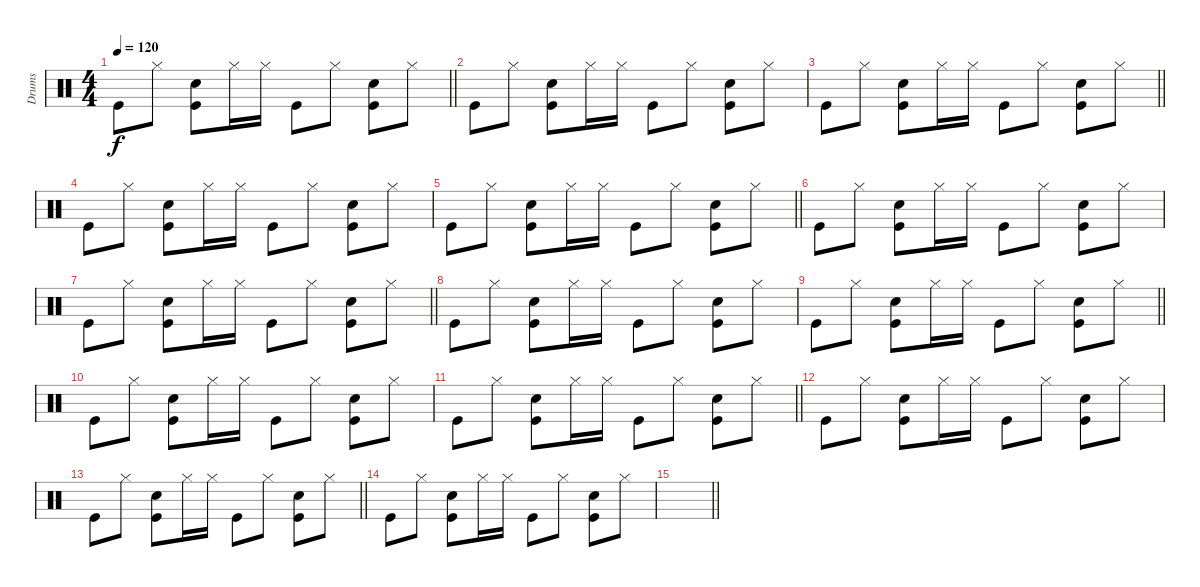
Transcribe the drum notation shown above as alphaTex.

\track ("Drums" "Drums") {instrument percussion}
\staff {score}
\articulation defaults
\ts (4 4)
\tempo 120
\clef neutral
\barLineRight lightlight
\ks c "Kick (hit)".8{dy f} "Hi-Hat (closed)".8
("Snare (hit) 2" "Kick (hit)").8 "Hi-Hat (closed)".16 "Hi-Hat (closed)".16 "Kick (hit)".8 "Hi-Hat (closed)".8 ("Snare (hit) 2" "Kick (hit)").8 "Hi-Hat (closed)".8 |
"Kick (hit)".8 "Hi-Hat (closed)".8 ("Snare (hit) 2" "Kick (hit)").8 "Hi-Hat (closed)".16 "Hi-Hat (closed)".16 "Kick (hit)".8 "Hi-Hat (closed)".8 ("Snare (hit) 2" "Kick (hit)").8 "Hi-Hat (closed)".8 |
\barLineRight lightlight "Kick (hit)".8 "Hi-Hat (closed)".8
("Snare (hit) 2" "Kick (hit)").8 "Hi-Hat (closed)".16 "Hi-Hat (closed)".16 "Kick (hit)".8 "Hi-Hat (closed)".8 ("Snare (hit) 2" "Kick (hit)").8 "Hi-Hat (closed)".8 |
"Kick (hit)".8 "Hi-Hat (closed)".8 ("Snare (hit) 2" "Kick (hit)").8 "Hi-Hat (closed)".16 "Hi-Hat (closed)".16 "Kick (hit)".8 "Hi-Hat (closed)".8 ("Snare (hit) 2" "Kick (hit)").8 "Hi-Hat (closed)".8 |
\barLineRight lightlight "Kick (hit)".8 "Hi-Hat (closed)".8
("Snare (hit) 2" "Kick (hit)").8 "Hi-Hat (closed)".16 "Hi-Hat (closed)".16 "Kick (hit)".8 "Hi-Hat (closed)".8 ("Snare (hit) 2" "Kick (hit)").8 "Hi-Hat (closed)".8 |
"Kick (hit)".8 "Hi-Hat (closed)".8 ("Snare (hit) 2" "Kick (hit)").8 "Hi-Hat (closed)".16 "Hi-Hat (closed)".16 "Kick (hit)".8 "Hi-Hat (closed)".8 ("Snare (hit) 2" "Kick (hit)").8 "Hi-Hat (closed)".8 |
\barLineRight lightlight "Kick (hit)".8 "Hi-Hat (closed)".8
("Snare (hit) 2" "Kick (hit)").8 "Hi-Hat (closed)".16 "Hi-Hat (closed)".16 "Kick (hit)".8 "Hi-Hat (closed)".8 ("Snare (hit) 2" "Kick (hit)").8 "Hi-Hat (closed)".8 |
"Kick (hit)".8 "Hi-Hat (closed)".8 ("Snare (hit) 2" "Kick (hit)").8 "Hi-Hat (closed)".16 "Hi-Hat (closed)".16 "Kick (hit)".8 "Hi-Hat (closed)".8 ("Snare (hit) 2" "Kick (hit)").8 "Hi-Hat (closed)".8 |
\barLineRight lightlight "Kick (hit)".8 "Hi-Hat (closed)".8
("Snare (hit) 2" "Kick (hit)").8 "Hi-Hat (closed)".16 "Hi-Hat (closed)".16 "Kick (hit)".8 "Hi-Hat (closed)".8 ("Snare (hit) 2" "Kick (hit)").8 "Hi-Hat (closed)".8 |
"Kick (hit)".8 "Hi-Hat (closed)".8 ("Snare (hit) 2" "Kick (hit)").8 "Hi-Hat (closed)".16 "Hi-Hat (closed)".16 "Kick (hit)".8 "Hi-Hat (closed)".8 ("Snare (hit) 2" "Kick (hit)").8 "Hi-Hat (closed)".8 |
\barLineRight lightlight "Kick (hit)".8 "Hi-Hat (closed)".8
("Snare (hit) 2" "Kick (hit)").8 "Hi-Hat (closed)".16 "Hi-Hat (closed)".16 "Kick (hit)".8 "Hi-Hat (closed)".8 ("Snare (hit) 2" "Kick (hit)").8 "Hi-Hat (closed)".8 |
"Kick (hit)".8 "Hi-Hat (closed)".8 ("Snare (hit) 2" "Kick (hit)").8 "Hi-Hat (closed)".16 "Hi-Hat (closed)".16 "Kick (hit)".8 "Hi-Hat (closed)".8 ("Snare (hit) 2" "Kick (hit)").8 "Hi-Hat (closed)".8 |
\barLineRight lightlight "Kick (hit)".8 "Hi-Hat (closed)".8
("Snare (hit) 2" "Kick (hit)").8 "Hi-Hat (closed)".16 "Hi-Hat (closed)".16 "Kick (hit)".8 "Hi-Hat (closed)".8 ("Snare (hit) 2" "Kick (hit)").8 "Hi-Hat (closed)".8 |
"Kick (hit)".8 "Hi-Hat (closed)".8 ("Snare (hit) 2" "Kick (hit)").8 "Hi-Hat (closed)".16 "Hi-Hat (closed)".16 "Kick (hit)".8 "Hi-Hat (closed)".8 ("Snare (hit) 2" "Kick (hit)").8 "Hi-Hat (closed)".8 |
\barLineRight lightlight
